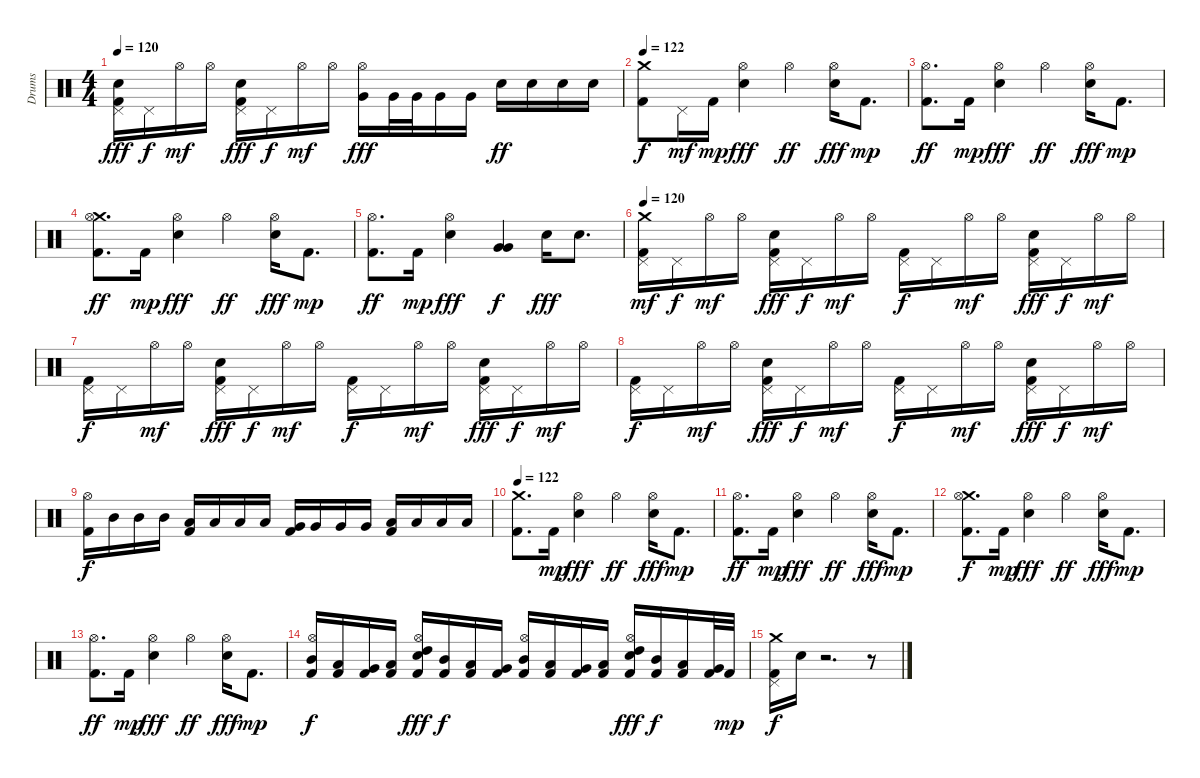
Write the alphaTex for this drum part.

\track ("Drums" "Drums") {instrument percussion}
\staff {score}
\articulation defaults
\ts (4 4)
\tempo 120
\clef neutral
\ks c
("Pedal Hi-Hat (hit)" "Electric Snare (hit)" "Kick (hit) 2").16{dy fff} "Pedal Hi-Hat (hit)".16{dy f} "Hi-Hat (open)".16{dy mf} "Hi-Hat (open)".16 ("Pedal Hi-Hat (hit)" "Electric Snare (hit)" "Kick (hit) 2").16{dy fff} "Pedal Hi-Hat (hit)".16{dy f} "Hi-Hat (open)".16{dy mf} "Hi-Hat (open)".16 ("Hi-Hat (open)" "Very Low Tom (hit)").16{dy fff} "Very Low Tom (hit)".32 "Very Low Tom (hit)".32 "Very Low Tom (hit)".16 "Very Low Tom (hit)".16 "Electric Snare (hit)".16{dy ff} "Electric Snare (hit)".16 "Electric Snare (hit)".16 "Electric Snare (hit)".16 |
\tempo 122
("Crash medium (hit)" "Kick (hit) 2").8{dy f} "Pedal Hi-Hat (hit)".16{dy mf} "Kick (hit) 2".16{dy mp} ("Hi-Hat (open)" "Electric Snare (hit)").4{dy fff} "Hi-Hat (open)".4{dy ff} ("Hi-Hat (open)" "Electric Snare (hit)").16{dy fff} "Kick (hit) 2".8{d dy mp} |
("Hi-Hat (open)" "Kick (hit) 2").8{d dy ff} "Kick (hit) 2".16{dy mp} ("Hi-Hat (open)" "Electric Snare (hit)").4{dy fff} "Hi-Hat (open)".4{dy ff} ("Hi-Hat (open)" "Electric Snare (hit)").16{dy fff} "Kick (hit) 2".8{d dy mp} |
("Crash medium (hit)" "Hi-Hat (open)" "Kick (hit) 2").8{d dy ff} "Kick (hit) 2".16{dy mp} ("Hi-Hat (open)" "Electric Snare (hit)").4{dy fff} "Hi-Hat (open)".4{dy ff} ("Hi-Hat (open)" "Electric Snare (hit)").16{dy fff} "Kick (hit) 2".8{d dy mp} |
("Hi-Hat (open)" "Kick (hit) 2").8{d dy ff} "Kick (hit) 2".16{dy mp} ("Hi-Hat (open)" "Electric Snare (hit)").4{dy fff} ("Very Low Tom (hit)" "Very Low Tom (hit)").4{dy f} "Electric Snare (hit)".16{dy fff} "Electric Snare (hit)".8{d} |
\tempo 120
("Crash medium (hit)" "Pedal Hi-Hat (hit)" "Kick (hit) 2").16{dy mf} "Pedal Hi-Hat (hit)".16{dy f} "Hi-Hat (open)".16{dy mf} "Hi-Hat (open)".16 ("Pedal Hi-Hat (hit)" "Electric Snare (hit)" "Kick (hit) 2").16{dy fff} "Pedal Hi-Hat (hit)".16{dy f} "Hi-Hat (open)".16{dy mf} "Hi-Hat (open)".16 ("Pedal Hi-Hat (hit)" "Kick (hit) 2").16{dy f} "Pedal Hi-Hat (hit)".16 "Hi-Hat (open)".16{dy mf} "Hi-Hat (open)".16 ("Pedal Hi-Hat (hit)" "Electric Snare (hit)" "Kick (hit) 2").16{dy fff} "Pedal Hi-Hat (hit)".16{dy f} "Hi-Hat (open)".16{dy mf} "Hi-Hat (open)".16 |
("Pedal Hi-Hat (hit)" "Kick (hit) 2").16{dy f} "Pedal Hi-Hat (hit)".16 "Hi-Hat (open)".16{dy mf} "Hi-Hat (open)".16 ("Pedal Hi-Hat (hit)" "Electric Snare (hit)" "Kick (hit) 2").16{dy fff} "Pedal Hi-Hat (hit)".16{dy f} "Hi-Hat (open)".16{dy mf} "Hi-Hat (open)".16 ("Pedal Hi-Hat (hit)" "Kick (hit) 2").16{dy f} "Pedal Hi-Hat (hit)".16 "Hi-Hat (open)".16{dy mf} "Hi-Hat (open)".16 ("Pedal Hi-Hat (hit)" "Electric Snare (hit)" "Kick (hit) 2").16{dy fff} "Pedal Hi-Hat (hit)".16{dy f} "Hi-Hat (open)".16{dy mf} "Hi-Hat (open)".16 |
("Pedal Hi-Hat (hit)" "Kick (hit) 2").16{dy f} "Pedal Hi-Hat (hit)".16 "Hi-Hat (open)".16{dy mf} "Hi-Hat (open)".16 ("Pedal Hi-Hat (hit)" "Electric Snare (hit)" "Kick (hit) 2").16{dy fff} "Pedal Hi-Hat (hit)".16{dy f} "Hi-Hat (open)".16{dy mf} "Hi-Hat (open)".16 ("Pedal Hi-Hat (hit)" "Kick (hit) 2").16{dy f} "Pedal Hi-Hat (hit)".16 "Hi-Hat (open)".16{dy mf} "Hi-Hat (open)".16 ("Pedal Hi-Hat (hit)" "Electric Snare (hit)" "Kick (hit) 2").16{dy fff} "Pedal Hi-Hat (hit)".16{dy f} "Hi-Hat (open)".16{dy mf} "Hi-Hat (open)".16 |
("Hi-Hat (open)" "Kick (hit) 2").16{dy f} "Mid Tom (hit)".16 "Mid Tom (hit)".16 "Mid Tom (hit)".16 ("Low Tom (hit)" "Kick (hit) 2").16 "Low Tom (hit)".16 "Low Tom (hit)".16 "Low Tom (hit)".16 ("Very Low Tom (hit)" "Kick (hit) 2").16 "Very Low Tom (hit)".16 "Very Low Tom (hit)".16 "Very Low Tom (hit)".16 ("Low Floor Tom (hit)" "Kick (hit) 2").16 "Low Floor Tom (hit)".16 "Low Floor Tom (hit)".16 "Low Floor Tom (hit)".16 |
\tempo 122
("Crash medium (hit)" "Kick (hit) 2").8{d} "Kick (hit) 2".16{dy mp} ("Hi-Hat (open)" "Electric Snare (hit)").4{dy fff} "Hi-Hat (open)".4{dy ff} ("Hi-Hat (open)" "Electric Snare (hit)").16{dy fff} "Kick (hit) 2".8{d dy mp} |
("Hi-Hat (open)" "Kick (hit) 2").8{d dy ff} "Kick (hit) 2".16{dy mp} ("Hi-Hat (open)" "Electric Snare (hit)").4{dy fff} "Hi-Hat (open)".4{dy ff} ("Hi-Hat (open)" "Electric Snare (hit)").16{dy fff} "Kick (hit) 2".8{d dy mp} |
("Crash medium (hit)" "Hi-Hat (open)" "Kick (hit) 2").8{d dy f} "Kick (hit) 2".16{dy mp} ("Hi-Hat (open)" "Electric Snare (hit)").4{dy fff} "Hi-Hat (open)".4{dy ff} ("Hi-Hat (open)" "Electric Snare (hit)").16{dy fff} "Kick (hit) 2".8{d dy mp} |
("Hi-Hat (open)" "Kick (hit) 2").8{d dy ff} "Kick (hit) 2".16{dy mp} ("Hi-Hat (open)" "Electric Snare (hit)").4{dy fff} "Hi-Hat (open)".4{dy ff} ("Hi-Hat (open)" "Electric Snare (hit)").16{dy fff} "Kick (hit) 2".8{d dy mp} |
("Hi-Hat (open)" "Mid Tom (hit)" "Kick (hit) 2").16{dy f} ("Low Tom (hit)" "Kick (hit) 2").16 ("Very Low Tom (hit)" "Kick (hit) 2").16 ("Low Floor Tom (hit)" "Kick (hit) 2").16 ("Hi-Hat (open)" "Electric Snare (hit)" "High Tom (hit)" "Kick (hit) 2").16{dy fff} ("Mid Tom (hit)" "Kick (hit) 2").16{dy f} ("Low Tom (hit)" "Kick (hit) 2").16 ("Very Low Tom (hit)" "Kick (hit) 2").16 ("Hi-Hat (open)" "Mid Tom (hit)" "Kick (hit) 2").16 ("Low Tom (hit)" "Kick (hit) 2").16 ("Very Low Tom (hit)" "Kick (hit) 2").16 ("Low Floor Tom (hit)" "Kick (hit) 2").16 ("Hi-Hat (open)" "Electric Snare (hit)" "High Tom (hit)" "Kick (hit) 2").16{dy fff} ("Mid Tom (hit)" "Kick (hit) 2").16{dy f} ("Low Tom (hit)" "Kick (hit) 2").16 ("Very Low Tom (hit)" "Kick (hit) 2").32 "Kick (hit) 2".32{dy mp} |
("Crash medium (hit)" "Pedal Hi-Hat (hit)" "Kick (hit) 2").16{dy f} "Snare (hit)".16{volume 0} r.2{d} r.8
